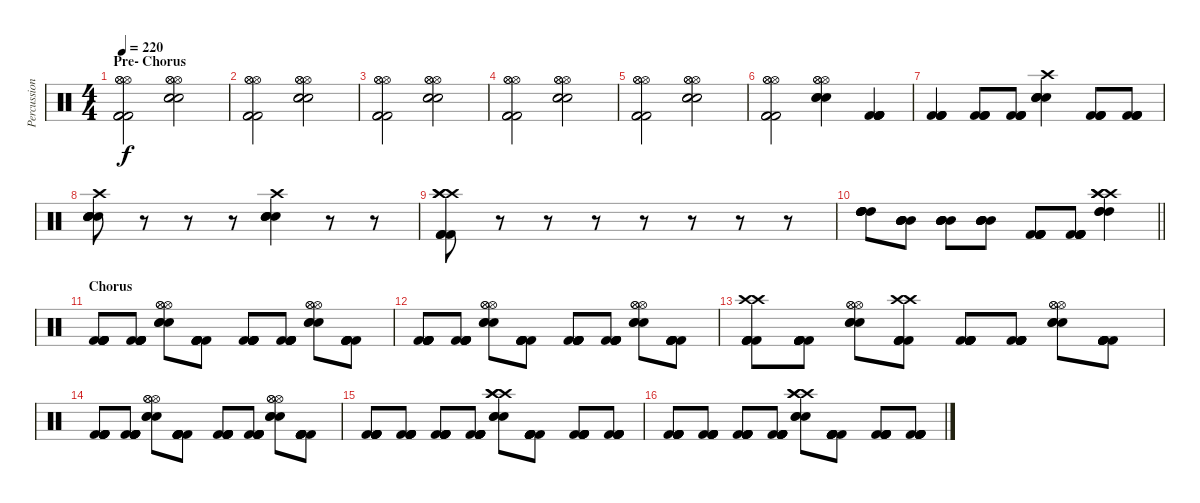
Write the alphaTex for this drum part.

\track ("Percussion" "Percussion") {instrument percussion}
\staff {score}
\articulation defaults
\ts (4 4)
\section ("" "Pre- Chorus")
\tempo 220
\clef neutral
\ks c
("Hi-Hat (open)" "Hi-Hat (open)" "Hi-Hat (open)" "Kick (hit) 2" "Kick (hit) 2" "Kick (hit) 2").2{dy f} ("Hi-Hat (open)" "Hi-Hat (open)" "Hi-Hat (open)" "Snare (hit) 2" "Snare (hit) 2" "Snare (hit) 2").2 |
("Hi-Hat (open)" "Hi-Hat (open)" "Hi-Hat (open)" "Kick (hit) 2" "Kick (hit) 2" "Kick (hit) 2").2 ("Hi-Hat (open)" "Hi-Hat (open)" "Hi-Hat (open)" "Snare (hit) 2" "Snare (hit) 2" "Snare (hit) 2").2 |
("Hi-Hat (open)" "Hi-Hat (open)" "Hi-Hat (open)" "Kick (hit) 2" "Kick (hit) 2" "Kick (hit) 2").2 ("Hi-Hat (open)" "Hi-Hat (open)" "Hi-Hat (open)" "Snare (hit) 2" "Snare (hit) 2" "Snare (hit) 2").2 |
("Hi-Hat (open)" "Hi-Hat (open)" "Hi-Hat (open)" "Kick (hit) 2" "Kick (hit) 2" "Kick (hit) 2").2 ("Hi-Hat (open)" "Hi-Hat (open)" "Hi-Hat (open)" "Snare (hit) 2" "Snare (hit) 2" "Snare (hit) 2").2 |
("Hi-Hat (open)" "Hi-Hat (open)" "Hi-Hat (open)" "Kick (hit) 2" "Kick (hit) 2" "Kick (hit) 2").2 ("Hi-Hat (open)" "Hi-Hat (open)" "Hi-Hat (open)" "Snare (hit) 2" "Snare (hit) 2" "Snare (hit) 2").2 |
("Hi-Hat (open)" "Hi-Hat (open)" "Hi-Hat (open)" "Kick (hit) 2" "Kick (hit) 2" "Kick (hit) 2").2 ("Hi-Hat (open)" "Hi-Hat (open)" "Hi-Hat (open)" "Snare (hit) 2" "Snare (hit) 2" "Snare (hit) 2").4 ("Kick (hit) 2" "Kick (hit) 2" "Kick (hit) 2" "Kick (hit) 2" "Kick (hit) 2").4 |
("Kick (hit) 2" "Kick (hit) 2" "Kick (hit) 2" "Kick (hit) 2").4 ("Kick (hit) 2" "Kick (hit) 2" "Kick (hit) 2" "Kick (hit) 2").8 ("Kick (hit) 2" "Kick (hit) 2" "Kick (hit) 2" "Kick (hit) 2").8 ("Crash high (hit)" "Snare (hit) 2" "Snare (hit) 2" "Snare (hit) 2" "Snare (hit) 2").4 ("Kick (hit) 2" "Kick (hit) 2" "Kick (hit) 2" "Kick (hit) 2").8 ("Kick (hit) 2" "Kick (hit) 2" "Kick (hit) 2" "Kick (hit) 2").8 |
("Crash high (hit)" "Snare (hit) 2" "Snare (hit) 2" "Snare (hit) 2" "Snare (hit) 2" "Snare (hit) 2").8 r.8 r.8 r.8 ("Crash high (hit)" "Snare (hit) 2" "Snare (hit) 2" "Snare (hit) 2" "Snare (hit) 2").4 r.8 r.8 |
("Crash high (hit)" "Crash high (hit)" "Crash high (hit)" "Kick (hit) 2" "Kick (hit) 2" "Kick (hit) 2").8 r.8 r.8 r.8 r.8 r.8 r.8 r.8 |
\barLineRight lightlight
("High Tom (hit)" "High Tom (hit)" "High Tom (hit)" "High Tom (hit)" "High Tom (hit)").8 ("Mid Tom (hit)" "Mid Tom (hit)" "Mid Tom (hit)" "Mid Tom (hit)" "Mid Tom (hit)").8 ("Mid Tom (hit)" "Mid Tom (hit)" "Mid Tom (hit)" "Mid Tom (hit)" "Mid Tom (hit)").8 ("Mid Tom (hit)" "Mid Tom (hit)" "Mid Tom (hit)" "Mid Tom (hit)" "Mid Tom (hit)").8 ("Kick (hit) 2" "Kick (hit) 2" "Kick (hit) 2" "Kick (hit) 2" "Kick (hit) 2").8 ("Kick (hit) 2" "Kick (hit) 2" "Kick (hit) 2" "Kick (hit) 2" "Kick (hit) 2").8 ("Crash high (hit)" "Crash high (hit)" "Crash high (hit)" "High Tom (hit)" "High Tom (hit)" "High Tom (hit)").4 |
\section ("" "Chorus")
("Kick (hit) 2" "Kick (hit) 2" "Kick (hit) 2" "Kick (hit) 2" "Kick (hit) 2" "Kick (hit) 2").8 ("Kick (hit) 2" "Kick (hit) 2" "Kick (hit) 2" "Kick (hit) 2" "Kick (hit) 2" "Kick (hit) 2").8 ("Hi-Hat (open)" "Hi-Hat (open)" "Hi-Hat (open)" "Snare (hit) 2" "Snare (hit) 2" "Snare (hit) 2").8 ("Kick (hit) 2" "Kick (hit) 2" "Kick (hit) 2" "Kick (hit) 2" "Kick (hit) 2" "Kick (hit) 2").8 ("Kick (hit) 2" "Kick (hit) 2" "Kick (hit) 2" "Kick (hit) 2" "Kick (hit) 2" "Kick (hit) 2").8 ("Kick (hit) 2" "Kick (hit) 2" "Kick (hit) 2" "Kick (hit) 2" "Kick (hit) 2" "Kick (hit) 2").8 ("Hi-Hat (open)" "Hi-Hat (open)" "Hi-Hat (open)" "Snare (hit) 2" "Snare (hit) 2" "Snare (hit) 2").8 ("Kick (hit) 2" "Kick (hit) 2" "Kick (hit) 2" "Kick (hit) 2" "Kick (hit) 2" "Kick (hit) 2").8 |
("Kick (hit) 2" "Kick (hit) 2" "Kick (hit) 2" "Kick (hit) 2" "Kick (hit) 2" "Kick (hit) 2").8 ("Kick (hit) 2" "Kick (hit) 2" "Kick (hit) 2" "Kick (hit) 2" "Kick (hit) 2" "Kick (hit) 2").8 ("Hi-Hat (open)" "Hi-Hat (open)" "Hi-Hat (open)" "Snare (hit) 2" "Snare (hit) 2" "Snare (hit) 2").8 ("Kick (hit) 2" "Kick (hit) 2" "Kick (hit) 2" "Kick (hit) 2" "Kick (hit) 2" "Kick (hit) 2").8 ("Kick (hit) 2" "Kick (hit) 2" "Kick (hit) 2" "Kick (hit) 2" "Kick (hit) 2" "Kick (hit) 2").8 ("Kick (hit) 2" "Kick (hit) 2" "Kick (hit) 2" "Kick (hit) 2" "Kick (hit) 2" "Kick (hit) 2").8 ("Hi-Hat (open)" "Hi-Hat (open)" "Hi-Hat (open)" "Snare (hit) 2" "Snare (hit) 2" "Snare (hit) 2").8 ("Kick (hit) 2" "Kick (hit) 2" "Kick (hit) 2" "Kick (hit) 2" "Kick (hit) 2" "Kick (hit) 2").8 |
("Crash high (hit)" "Crash high (hit)" "Kick (hit) 2" "Kick (hit) 2" "Kick (hit) 2" "Kick (hit) 2").8 ("Kick (hit) 2" "Kick (hit) 2" "Kick (hit) 2" "Kick (hit) 2" "Kick (hit) 2" "Kick (hit) 2").8 ("Hi-Hat (open)" "Hi-Hat (open)" "Hi-Hat (open)" "Snare (hit) 2" "Snare (hit) 2" "Snare (hit) 2").8 ("Crash high (hit)" "Crash high (hit)" "Kick (hit) 2" "Kick (hit) 2" "Kick (hit) 2" "Kick (hit) 2").8 ("Kick (hit) 2" "Kick (hit) 2" "Kick (hit) 2" "Kick (hit) 2" "Kick (hit) 2" "Kick (hit) 2").8 ("Kick (hit) 2" "Kick (hit) 2" "Kick (hit) 2" "Kick (hit) 2" "Kick (hit) 2" "Kick (hit) 2").8 ("Hi-Hat (open)" "Hi-Hat (open)" "Hi-Hat (open)" "Snare (hit) 2" "Snare (hit) 2" "Snare (hit) 2").8 ("Kick (hit) 2" "Kick (hit) 2" "Kick (hit) 2" "Kick (hit) 2" "Kick (hit) 2" "Kick (hit) 2").8 |
("Kick (hit) 2" "Kick (hit) 2" "Kick (hit) 2" "Kick (hit) 2" "Kick (hit) 2" "Kick (hit) 2").8 ("Kick (hit) 2" "Kick (hit) 2" "Kick (hit) 2" "Kick (hit) 2" "Kick (hit) 2" "Kick (hit) 2").8 ("Hi-Hat (open)" "Hi-Hat (open)" "Hi-Hat (open)" "Snare (hit) 2" "Snare (hit) 2" "Snare (hit) 2").8 ("Kick (hit) 2" "Kick (hit) 2" "Kick (hit) 2" "Kick (hit) 2" "Kick (hit) 2" "Kick (hit) 2").8 ("Kick (hit) 2" "Kick (hit) 2" "Kick (hit) 2" "Kick (hit) 2" "Kick (hit) 2" "Kick (hit) 2").8 ("Kick (hit) 2" "Kick (hit) 2" "Kick (hit) 2" "Kick (hit) 2" "Kick (hit) 2" "Kick (hit) 2").8 ("Hi-Hat (open)" "Hi-Hat (open)" "Hi-Hat (open)" "Snare (hit) 2" "Snare (hit) 2" "Snare (hit) 2").8 ("Kick (hit) 2" "Kick (hit) 2" "Kick (hit) 2" "Kick (hit) 2" "Kick (hit) 2" "Kick (hit) 2").8 |
("Kick (hit) 2" "Kick (hit) 2" "Kick (hit) 2" "Kick (hit) 2" "Kick (hit) 2" "Kick (hit) 2").8 ("Kick (hit) 2" "Kick (hit) 2" "Kick (hit) 2" "Kick (hit) 2" "Kick (hit) 2" "Kick (hit) 2").8 ("Kick (hit) 2" "Kick (hit) 2" "Kick (hit) 2" "Kick (hit) 2" "Kick (hit) 2" "Kick (hit) 2").8 ("Kick (hit) 2" "Kick (hit) 2" "Kick (hit) 2" "Kick (hit) 2" "Kick (hit) 2" "Kick (hit) 2").8 ("Crash high (hit)" "Crash high (hit)" "Crash high (hit)" "Snare (hit) 2" "Snare (hit) 2" "Snare (hit) 2").8 ("Kick (hit) 2" "Kick (hit) 2" "Kick (hit) 2" "Kick (hit) 2" "Kick (hit) 2" "Kick (hit) 2").8 ("Kick (hit) 2" "Kick (hit) 2" "Kick (hit) 2" "Kick (hit) 2" "Kick (hit) 2" "Kick (hit) 2").8 ("Kick (hit) 2" "Kick (hit) 2" "Kick (hit) 2" "Kick (hit) 2" "Kick (hit) 2" "Kick (hit) 2").8 |
("Kick (hit) 2" "Kick (hit) 2" "Kick (hit) 2" "Kick (hit) 2" "Kick (hit) 2" "Kick (hit) 2").8 ("Kick (hit) 2" "Kick (hit) 2" "Kick (hit) 2" "Kick (hit) 2" "Kick (hit) 2" "Kick (hit) 2").8 ("Kick (hit) 2" "Kick (hit) 2" "Kick (hit) 2" "Kick (hit) 2" "Kick (hit) 2" "Kick (hit) 2").8 ("Kick (hit) 2" "Kick (hit) 2" "Kick (hit) 2" "Kick (hit) 2" "Kick (hit) 2" "Kick (hit) 2").8 ("Crash high (hit)" "Crash high (hit)" "Crash high (hit)" "Snare (hit) 2" "Snare (hit) 2" "Snare (hit) 2").8 ("Kick (hit) 2" "Kick (hit) 2" "Kick (hit) 2" "Kick (hit) 2" "Kick (hit) 2" "Kick (hit) 2").8 ("Kick (hit) 2" "Kick (hit) 2" "Kick (hit) 2" "Kick (hit) 2" "Kick (hit) 2" "Kick (hit) 2").8 ("Kick (hit) 2" "Kick (hit) 2" "Kick (hit) 2" "Kick (hit) 2" "Kick (hit) 2" "Kick (hit) 2").8
